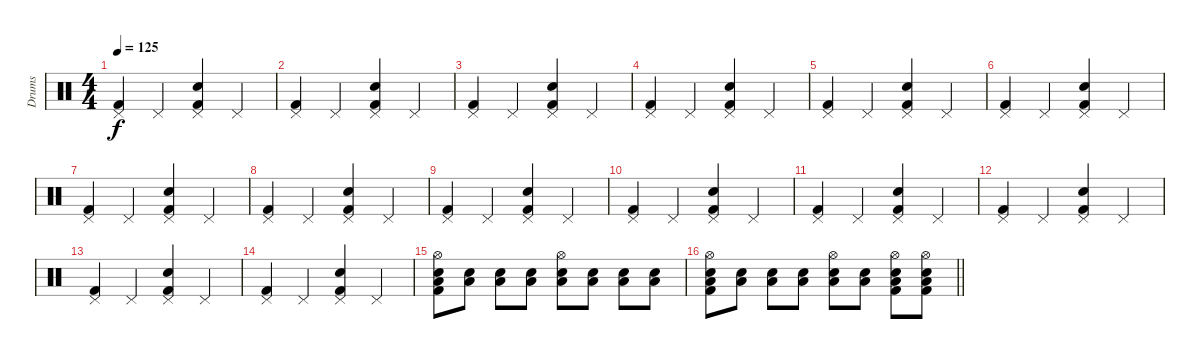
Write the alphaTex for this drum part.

\track ("Drums" "Drums") {instrument percussion}
\staff {score}
\articulation defaults
\ts (4 4)
\tempo 125
\clef neutral
\ks c
("Pedal Hi-Hat (hit)" "Kick (hit) 2").4{dy f} "Pedal Hi-Hat (hit)".4 ("Pedal Hi-Hat (hit)" "Electric Snare (hit)" "Kick (hit) 2").4 "Pedal Hi-Hat (hit)".4 |
("Pedal Hi-Hat (hit)" "Kick (hit) 2").4 "Pedal Hi-Hat (hit)".4 ("Pedal Hi-Hat (hit)" "Electric Snare (hit)" "Kick (hit) 2").4 "Pedal Hi-Hat (hit)".4 |
("Pedal Hi-Hat (hit)" "Kick (hit) 2").4 "Pedal Hi-Hat (hit)".4 ("Pedal Hi-Hat (hit)" "Electric Snare (hit)" "Kick (hit) 2").4 "Pedal Hi-Hat (hit)".4 |
("Pedal Hi-Hat (hit)" "Kick (hit) 2").4 "Pedal Hi-Hat (hit)".4 ("Pedal Hi-Hat (hit)" "Electric Snare (hit)" "Kick (hit) 2").4 "Pedal Hi-Hat (hit)".4 |
("Pedal Hi-Hat (hit)" "Kick (hit) 2").4 "Pedal Hi-Hat (hit)".4 ("Pedal Hi-Hat (hit)" "Electric Snare (hit)" "Kick (hit) 2").4 "Pedal Hi-Hat (hit)".4 |
("Pedal Hi-Hat (hit)" "Kick (hit) 2").4 "Pedal Hi-Hat (hit)".4 ("Pedal Hi-Hat (hit)" "Electric Snare (hit)" "Kick (hit) 2").4 "Pedal Hi-Hat (hit)".4 |
("Pedal Hi-Hat (hit)" "Kick (hit) 2").4 "Pedal Hi-Hat (hit)".4 ("Pedal Hi-Hat (hit)" "Electric Snare (hit)" "Kick (hit) 2").4 "Pedal Hi-Hat (hit)".4 |
("Pedal Hi-Hat (hit)" "Kick (hit) 2").4 "Pedal Hi-Hat (hit)".4 ("Pedal Hi-Hat (hit)" "Electric Snare (hit)" "Kick (hit) 2").4 "Pedal Hi-Hat (hit)".4 |
("Pedal Hi-Hat (hit)" "Kick (hit) 2").4 "Pedal Hi-Hat (hit)".4 ("Pedal Hi-Hat (hit)" "Electric Snare (hit)" "Kick (hit) 2").4 "Pedal Hi-Hat (hit)".4 |
("Pedal Hi-Hat (hit)" "Kick (hit) 2").4 "Pedal Hi-Hat (hit)".4 ("Pedal Hi-Hat (hit)" "Electric Snare (hit)" "Kick (hit) 2").4 "Pedal Hi-Hat (hit)".4 |
("Pedal Hi-Hat (hit)" "Kick (hit) 2").4 "Pedal Hi-Hat (hit)".4 ("Pedal Hi-Hat (hit)" "Electric Snare (hit)" "Kick (hit) 2").4 "Pedal Hi-Hat (hit)".4 |
("Pedal Hi-Hat (hit)" "Kick (hit) 2").4 "Pedal Hi-Hat (hit)".4 ("Pedal Hi-Hat (hit)" "Electric Snare (hit)" "Kick (hit) 2").4 "Pedal Hi-Hat (hit)".4 |
("Pedal Hi-Hat (hit)" "Kick (hit) 2").4 "Pedal Hi-Hat (hit)".4 ("Pedal Hi-Hat (hit)" "Electric Snare (hit)" "Kick (hit) 2").4 "Pedal Hi-Hat (hit)".4 |
("Pedal Hi-Hat (hit)" "Kick (hit) 2").4 "Pedal Hi-Hat (hit)".4 ("Pedal Hi-Hat (hit)" "Electric Snare (hit)" "Kick (hit) 2").4 "Pedal Hi-Hat (hit)".4 |
("Low Tom (hit)" "Electric Snare (hit)" "Hi-Hat (open)" "Kick (hit) 2").8{volume 9} ("Low Tom (hit)" "Electric Snare (hit)").8{volume 13} ("Low Tom (hit)" "Electric Snare (hit)").8 ("Low Tom (hit)" "Electric Snare (hit)").8 ("Low Tom (hit)" "Electric Snare (hit)" "Hi-Hat (open)").8 ("Low Tom (hit)" "Electric Snare (hit)").8 ("Low Tom (hit)" "Electric Snare (hit)").8 ("Low Tom (hit)" "Electric Snare (hit)").8 |
\barLineRight lightlight
("Low Tom (hit)" "Electric Snare (hit)" "Hi-Hat (open)" "Kick (hit) 2").8 ("Low Tom (hit)" "Electric Snare (hit)").8 ("Low Tom (hit)" "Electric Snare (hit)").8 ("Low Tom (hit)" "Electric Snare (hit)").8 ("Low Tom (hit)" "Electric Snare (hit)" "Hi-Hat (open)").8 ("Low Tom (hit)" "Electric Snare (hit)").8 ("Low Tom (hit)" "Electric Snare (hit)" "Hi-Hat (open)" "Kick (hit) 2").8 ("Low Tom (hit)" "Electric Snare (hit)" "Hi-Hat (open)" "Kick (hit) 2").8
